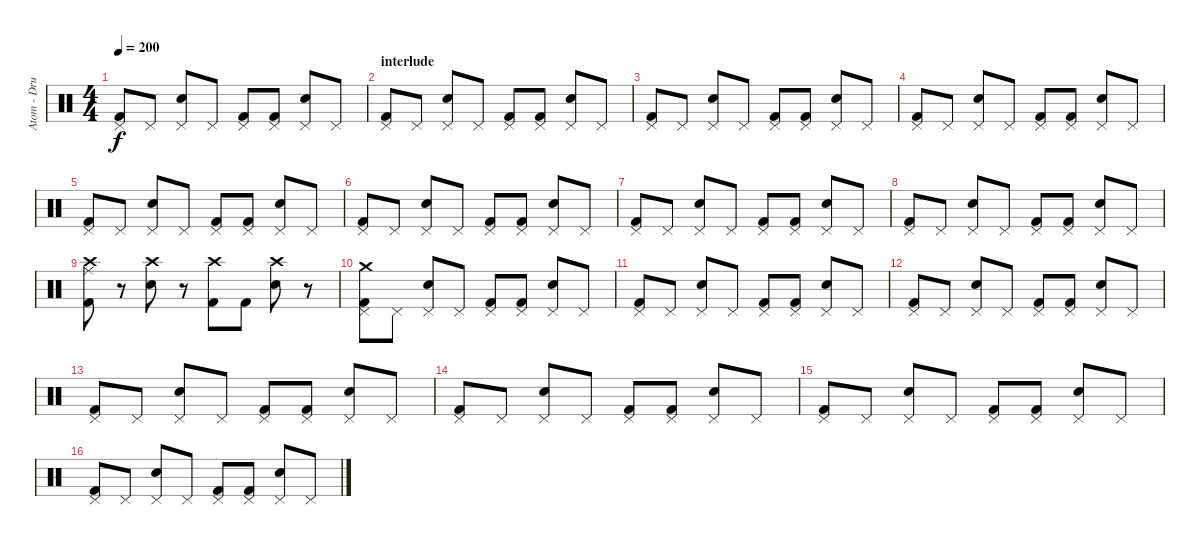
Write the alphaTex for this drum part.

\track ("Atom - Drums" "Atom - Dru") {instrument percussion}
\staff {score}
\articulation defaults
\ts (4 4)
\tempo 200
\clef neutral
\ks c
("Pedal Hi-Hat (hit)" "Kick (hit) 2").8{dy f} "Pedal Hi-Hat (hit)".8 ("Pedal Hi-Hat (hit)" "Electric Snare (hit)").8 "Pedal Hi-Hat (hit)".8 ("Pedal Hi-Hat (hit)" "Kick (hit) 2").8 ("Pedal Hi-Hat (hit)" "Kick (hit) 2").8 ("Pedal Hi-Hat (hit)" "Electric Snare (hit)").8 "Pedal Hi-Hat (hit)".8 |
\section ("" "interlude")
("Pedal Hi-Hat (hit)" "Kick (hit) 2").8 "Pedal Hi-Hat (hit)".8 ("Pedal Hi-Hat (hit)" "Electric Snare (hit)").8 "Pedal Hi-Hat (hit)".8 ("Pedal Hi-Hat (hit)" "Kick (hit) 2").8 ("Pedal Hi-Hat (hit)" "Kick (hit) 2").8 ("Pedal Hi-Hat (hit)" "Electric Snare (hit)").8 "Pedal Hi-Hat (hit)".8 |
("Pedal Hi-Hat (hit)" "Kick (hit) 2").8 "Pedal Hi-Hat (hit)".8 ("Pedal Hi-Hat (hit)" "Electric Snare (hit)").8 "Pedal Hi-Hat (hit)".8 ("Pedal Hi-Hat (hit)" "Kick (hit) 2").8 ("Pedal Hi-Hat (hit)" "Kick (hit) 2").8 ("Pedal Hi-Hat (hit)" "Electric Snare (hit)").8 "Pedal Hi-Hat (hit)".8 |
("Pedal Hi-Hat (hit)" "Kick (hit) 2").8 "Pedal Hi-Hat (hit)".8 ("Pedal Hi-Hat (hit)" "Electric Snare (hit)").8 "Pedal Hi-Hat (hit)".8 ("Pedal Hi-Hat (hit)" "Kick (hit) 2").8 ("Pedal Hi-Hat (hit)" "Kick (hit) 2").8 ("Pedal Hi-Hat (hit)" "Electric Snare (hit)").8 "Pedal Hi-Hat (hit)".8 |
("Pedal Hi-Hat (hit)" "Kick (hit) 2").8 "Pedal Hi-Hat (hit)".8 ("Pedal Hi-Hat (hit)" "Electric Snare (hit)").8 "Pedal Hi-Hat (hit)".8 ("Pedal Hi-Hat (hit)" "Kick (hit) 2").8 ("Pedal Hi-Hat (hit)" "Kick (hit) 2").8 ("Pedal Hi-Hat (hit)" "Electric Snare (hit)").8 "Pedal Hi-Hat (hit)".8 |
("Pedal Hi-Hat (hit)" "Kick (hit) 2").8 "Pedal Hi-Hat (hit)".8 ("Pedal Hi-Hat (hit)" "Electric Snare (hit)").8 "Pedal Hi-Hat (hit)".8 ("Pedal Hi-Hat (hit)" "Kick (hit) 2").8 ("Pedal Hi-Hat (hit)" "Kick (hit) 2").8 ("Pedal Hi-Hat (hit)" "Electric Snare (hit)").8 "Pedal Hi-Hat (hit)".8 |
("Pedal Hi-Hat (hit)" "Kick (hit) 2").8 "Pedal Hi-Hat (hit)".8 ("Pedal Hi-Hat (hit)" "Electric Snare (hit)").8 "Pedal Hi-Hat (hit)".8 ("Pedal Hi-Hat (hit)" "Kick (hit) 2").8 ("Pedal Hi-Hat (hit)" "Kick (hit) 2").8 ("Pedal Hi-Hat (hit)" "Electric Snare (hit)").8 "Pedal Hi-Hat (hit)".8 |
("Pedal Hi-Hat (hit)" "Kick (hit) 2").8 "Pedal Hi-Hat (hit)".8 ("Pedal Hi-Hat (hit)" "Electric Snare (hit)").8 "Pedal Hi-Hat (hit)".8 ("Pedal Hi-Hat (hit)" "Kick (hit) 2").8 ("Pedal Hi-Hat (hit)" "Kick (hit) 2").8 ("Pedal Hi-Hat (hit)" "Electric Snare (hit)").8 "Pedal Hi-Hat (hit)".8 |
("Crash high (hit)" "Ride (middle)" "Kick (hit) 2").8 r.8 ("Crash high (hit)" "Electric Snare (hit)").8 r.8 ("Crash high (hit)" "Kick (hit) 2").8 "Kick (hit) 2".8 ("Crash high (hit)" "Electric Snare (hit)").8 r.8 |
("Crash medium (hit)" "Pedal Hi-Hat (hit)" "Kick (hit) 2").8 "Pedal Hi-Hat (hit)".8 ("Pedal Hi-Hat (hit)" "Electric Snare (hit)").8 "Pedal Hi-Hat (hit)".8 ("Pedal Hi-Hat (hit)" "Kick (hit) 2").8 ("Pedal Hi-Hat (hit)" "Kick (hit) 2").8 ("Pedal Hi-Hat (hit)" "Electric Snare (hit)").8 "Pedal Hi-Hat (hit)".8 |
("Pedal Hi-Hat (hit)" "Kick (hit) 2").8 "Pedal Hi-Hat (hit)".8 ("Pedal Hi-Hat (hit)" "Electric Snare (hit)").8 "Pedal Hi-Hat (hit)".8 ("Pedal Hi-Hat (hit)" "Kick (hit) 2").8 ("Pedal Hi-Hat (hit)" "Kick (hit) 2").8 ("Pedal Hi-Hat (hit)" "Electric Snare (hit)").8 "Pedal Hi-Hat (hit)".8 |
("Pedal Hi-Hat (hit)" "Kick (hit) 2").8 "Pedal Hi-Hat (hit)".8 ("Pedal Hi-Hat (hit)" "Electric Snare (hit)").8 "Pedal Hi-Hat (hit)".8 ("Pedal Hi-Hat (hit)" "Kick (hit) 2").8 ("Pedal Hi-Hat (hit)" "Kick (hit) 2").8 ("Pedal Hi-Hat (hit)" "Electric Snare (hit)").8 "Pedal Hi-Hat (hit)".8 |
("Pedal Hi-Hat (hit)" "Kick (hit) 2").8 "Pedal Hi-Hat (hit)".8 ("Pedal Hi-Hat (hit)" "Electric Snare (hit)").8 "Pedal Hi-Hat (hit)".8 ("Pedal Hi-Hat (hit)" "Kick (hit) 2").8 ("Pedal Hi-Hat (hit)" "Kick (hit) 2").8 ("Pedal Hi-Hat (hit)" "Electric Snare (hit)").8 "Pedal Hi-Hat (hit)".8 |
("Pedal Hi-Hat (hit)" "Kick (hit) 2").8 "Pedal Hi-Hat (hit)".8 ("Pedal Hi-Hat (hit)" "Electric Snare (hit)").8 "Pedal Hi-Hat (hit)".8 ("Pedal Hi-Hat (hit)" "Kick (hit) 2").8 ("Pedal Hi-Hat (hit)" "Kick (hit) 2").8 ("Pedal Hi-Hat (hit)" "Electric Snare (hit)").8 "Pedal Hi-Hat (hit)".8 |
("Pedal Hi-Hat (hit)" "Kick (hit) 2").8 "Pedal Hi-Hat (hit)".8 ("Pedal Hi-Hat (hit)" "Electric Snare (hit)").8 "Pedal Hi-Hat (hit)".8 ("Pedal Hi-Hat (hit)" "Kick (hit) 2").8 ("Pedal Hi-Hat (hit)" "Kick (hit) 2").8 ("Pedal Hi-Hat (hit)" "Electric Snare (hit)").8 "Pedal Hi-Hat (hit)".8 |
("Pedal Hi-Hat (hit)" "Kick (hit) 2").8 "Pedal Hi-Hat (hit)".8 ("Pedal Hi-Hat (hit)" "Electric Snare (hit)").8 "Pedal Hi-Hat (hit)".8 ("Pedal Hi-Hat (hit)" "Kick (hit) 2").8 ("Pedal Hi-Hat (hit)" "Kick (hit) 2").8 ("Pedal Hi-Hat (hit)" "Electric Snare (hit)").8 "Pedal Hi-Hat (hit)".8
